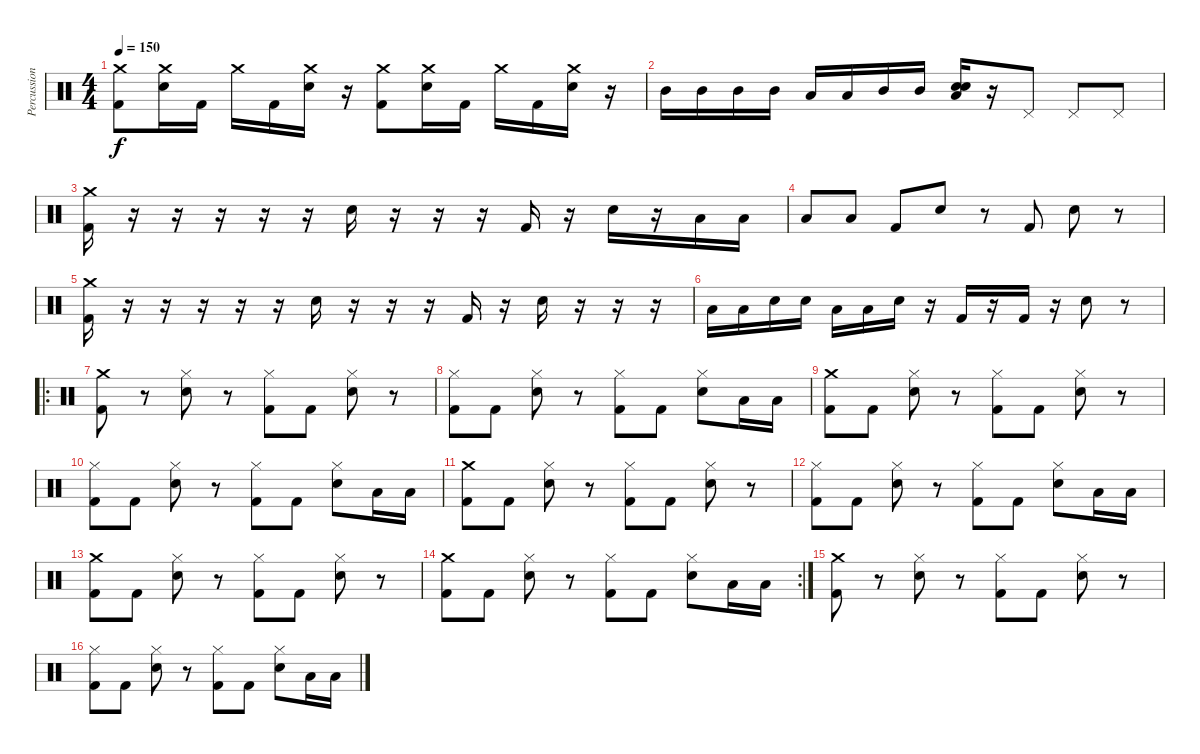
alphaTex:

\track ("Percussions" "Percussion") {instrument percussion}
\staff {score}
\articulation defaults
\ts (4 4)
\tempo 150
\clef neutral
\ks c
("Crash medium (hit)" "Kick (hit) 2").8{dy f} ("Crash medium (hit)" "Snare (hit) 2").16 "Kick (hit) 2".16 "Crash medium (hit)".16 "Kick (hit) 2".16 ("Crash medium (hit)" "Snare (hit) 2").16 r.16 ("Crash medium (hit)" "Kick (hit) 2").8 ("Crash medium (hit)" "Snare (hit) 2").16 "Kick (hit) 2".16 "Crash medium (hit)".16 "Kick (hit) 2".16 ("Crash medium (hit)" "Snare (hit) 2").16 r.16 |
"Mid Tom (hit)".16 "Mid Tom (hit)".16 "Mid Tom (hit)".16 "Mid Tom (hit)".16 "Low Tom (hit)".16 "Low Floor Tom (hit)".16 "Mid Tom (hit)".16 "Mid Tom (hit)".16 ("Snare (hit) 2" "Snare (hit) 2" "Low Floor Tom (hit)").16{bu 30} r.16 "Pedal Hi-Hat (hit)".8 "Pedal Hi-Hat (hit)".8 "Pedal Hi-Hat (hit)".8 |
("Crash medium (hit)" "Kick (hit) 2").16 r.16 r.16 r.16 r.16 r.16 "Snare (hit) 2".16 r.16 r.16 r.16 "Kick (hit) 2".16 r.16 "Snare (hit) 2".16 r.16 "Low Tom (hit)".16 "Low Tom (hit)".16 |
"Low Tom (hit)".8 "Low Tom (hit)".8 "Kick (hit) 2".8 "Snare (hit) 2".8 r.8 "Kick (hit) 2".8 "Snare (hit) 2".8 r.8 |
("Crash medium (hit)" "Kick (hit) 2").16 r.16 r.16 r.16 r.16 r.16 "Snare (hit) 2".16 r.16 r.16 r.16 "Kick (hit) 2".16 r.16 "Snare (hit) 2".16 r.16 r.16 r.16 |
"Low Tom (hit)".16 "Low Tom (hit)".16 "Snare (hit) 2".16 "Snare (hit) 2".16 "Low Tom (hit)".16 "Low Tom (hit)".16 "Snare (hit) 2".16 r.16 "Kick (hit) 2".16 r.16 "Kick (hit) 2".16 r.16 "Snare (hit) 2".8 r.8 |
\ro
("Crash medium (hit)" "Kick (hit) 2").8 r.8 ("Hi-Hat (closed)" "Snare (hit) 2").8 r.8 ("Hi-Hat (closed)" "Kick (hit) 2").8 "Kick (hit) 2".8 ("Hi-Hat (closed)" "Snare (hit) 2").8 r.8 |
("Hi-Hat (closed)" "Kick (hit) 2").8 "Kick (hit) 2".8 ("Hi-Hat (closed)" "Snare (hit) 2").8 r.8 ("Hi-Hat (closed)" "Kick (hit) 2").8 "Kick (hit) 2".8 ("Hi-Hat (closed)" "Snare (hit) 2").8 "Low Tom (hit)".16 "Low Tom (hit)".16 |
("Crash medium (hit)" "Kick (hit) 2").8 "Kick (hit) 2".8 ("Hi-Hat (closed)" "Snare (hit) 2").8 r.8 ("Hi-Hat (closed)" "Kick (hit) 2").8 "Kick (hit) 2".8 ("Hi-Hat (closed)" "Snare (hit) 2").8 r.8 |
("Hi-Hat (closed)" "Kick (hit) 2").8 "Kick (hit) 2".8 ("Hi-Hat (closed)" "Snare (hit) 2").8 r.8 ("Hi-Hat (closed)" "Kick (hit) 2").8 "Kick (hit) 2".8 ("Hi-Hat (closed)" "Snare (hit) 2").8 "Low Tom (hit)".16 "Low Tom (hit)".16 |
("Crash medium (hit)" "Kick (hit) 2").8 "Kick (hit) 2".8 ("Hi-Hat (closed)" "Snare (hit) 2").8 r.8 ("Hi-Hat (closed)" "Kick (hit) 2").8 "Kick (hit) 2".8 ("Hi-Hat (closed)" "Snare (hit) 2").8 r.8 |
("Hi-Hat (closed)" "Kick (hit) 2").8 "Kick (hit) 2".8 ("Hi-Hat (closed)" "Snare (hit) 2").8 r.8 ("Hi-Hat (closed)" "Kick (hit) 2").8 "Kick (hit) 2".8 ("Hi-Hat (closed)" "Snare (hit) 2").8 "Low Tom (hit)".16 "Low Tom (hit)".16 |
("Crash medium (hit)" "Kick (hit) 2").8 "Kick (hit) 2".8 ("Hi-Hat (closed)" "Snare (hit) 2").8 r.8 ("Hi-Hat (closed)" "Kick (hit) 2").8 "Kick (hit) 2".8 ("Hi-Hat (closed)" "Snare (hit) 2").8 r.8 |
\rc 2
("Crash medium (hit)" "Kick (hit) 2").8 "Kick (hit) 2".8 ("Hi-Hat (closed)" "Snare (hit) 2").8 r.8 ("Hi-Hat (closed)" "Kick (hit) 2").8 "Kick (hit) 2".8 ("Hi-Hat (closed)" "Snare (hit) 2").8 "Low Tom (hit)".16 "Low Tom (hit)".16 |
("Crash medium (hit)" "Kick (hit) 2").8 r.8 ("Hi-Hat (closed)" "Snare (hit) 2").8 r.8 ("Hi-Hat (closed)" "Kick (hit) 2").8 "Kick (hit) 2".8 ("Hi-Hat (closed)" "Snare (hit) 2").8 r.8 |
("Hi-Hat (closed)" "Kick (hit) 2").8 "Kick (hit) 2".8 ("Hi-Hat (closed)" "Snare (hit) 2").8 r.8 ("Hi-Hat (closed)" "Kick (hit) 2").8 "Kick (hit) 2".8 ("Hi-Hat (closed)" "Snare (hit) 2").8 "Low Tom (hit)".16 "Low Tom (hit)".16
